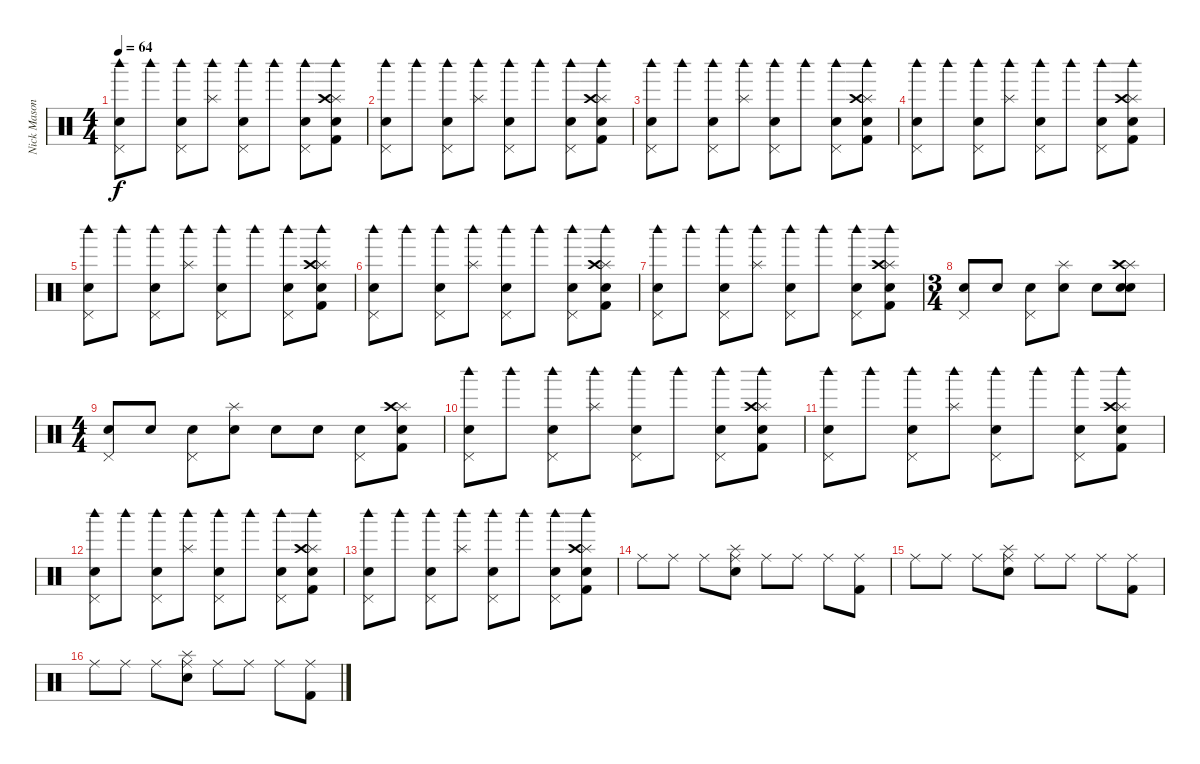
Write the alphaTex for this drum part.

\track ("Nick Mason" "Nick Mason") {instrument percussion}
\staff {score}
\articulation defaults
\ts (4 4)
\tempo 64
\clef neutral
\ks c
("Woodblock high (hit)" "Pedal Hi-Hat (hit)" "Snare (hit) 2").8{dy f} "Woodblock high (hit)".8 ("Woodblock high (hit)" "Pedal Hi-Hat (hit)" "Snare (hit) 2").8 ("Woodblock high (hit)" "Splash (hit)").8 ("Woodblock high (hit)" "Pedal Hi-Hat (hit)" "Snare (hit) 2").8 "Woodblock high (hit)".8 ("Woodblock high (hit)" "Pedal Hi-Hat (hit)" "Snare (hit) 2").8 ("Woodblock high (hit)" "Splash (hit)" "Crash high (hit)" "Electric Snare (hit)" "Kick (hit) 2").8 |
("Woodblock high (hit)" "Pedal Hi-Hat (hit)" "Snare (hit) 2").8 "Woodblock high (hit)".8 ("Woodblock high (hit)" "Pedal Hi-Hat (hit)" "Snare (hit) 2").8 ("Woodblock high (hit)" "Splash (hit)").8 ("Woodblock high (hit)" "Pedal Hi-Hat (hit)" "Snare (hit) 2").8 "Woodblock high (hit)".8 ("Woodblock high (hit)" "Pedal Hi-Hat (hit)" "Snare (hit) 2").8 ("Woodblock high (hit)" "Splash (hit)" "Crash high (hit)" "Electric Snare (hit)" "Kick (hit) 2").8 |
("Woodblock high (hit)" "Pedal Hi-Hat (hit)" "Snare (hit) 2").8 "Woodblock high (hit)".8 ("Woodblock high (hit)" "Pedal Hi-Hat (hit)" "Snare (hit) 2").8 ("Woodblock high (hit)" "Splash (hit)").8 ("Woodblock high (hit)" "Pedal Hi-Hat (hit)" "Snare (hit) 2").8 "Woodblock high (hit)".8 ("Woodblock high (hit)" "Pedal Hi-Hat (hit)" "Snare (hit) 2").8 ("Woodblock high (hit)" "Splash (hit)" "Crash high (hit)" "Electric Snare (hit)" "Kick (hit) 2").8 |
("Woodblock high (hit)" "Pedal Hi-Hat (hit)" "Snare (hit) 2").8 "Woodblock high (hit)".8 ("Woodblock high (hit)" "Pedal Hi-Hat (hit)" "Snare (hit) 2").8 ("Woodblock high (hit)" "Splash (hit)").8 ("Woodblock high (hit)" "Pedal Hi-Hat (hit)" "Snare (hit) 2").8 "Woodblock high (hit)".8 ("Woodblock high (hit)" "Pedal Hi-Hat (hit)" "Snare (hit) 2").8 ("Woodblock high (hit)" "Splash (hit)" "Crash high (hit)" "Electric Snare (hit)" "Kick (hit) 2").8 |
("Woodblock high (hit)" "Pedal Hi-Hat (hit)" "Snare (hit) 2").8 "Woodblock high (hit)".8 ("Woodblock high (hit)" "Pedal Hi-Hat (hit)" "Snare (hit) 2").8 ("Woodblock high (hit)" "Splash (hit)").8 ("Woodblock high (hit)" "Pedal Hi-Hat (hit)" "Snare (hit) 2").8 "Woodblock high (hit)".8 ("Woodblock high (hit)" "Pedal Hi-Hat (hit)" "Snare (hit) 2").8 ("Woodblock high (hit)" "Splash (hit)" "Crash high (hit)" "Electric Snare (hit)" "Kick (hit) 2").8 |
("Woodblock high (hit)" "Pedal Hi-Hat (hit)" "Snare (hit) 2").8 "Woodblock high (hit)".8 ("Woodblock high (hit)" "Pedal Hi-Hat (hit)" "Snare (hit) 2").8 ("Woodblock high (hit)" "Splash (hit)").8 ("Woodblock high (hit)" "Pedal Hi-Hat (hit)" "Snare (hit) 2").8 "Woodblock high (hit)".8 ("Woodblock high (hit)" "Pedal Hi-Hat (hit)" "Snare (hit) 2").8 ("Woodblock high (hit)" "Splash (hit)" "Crash high (hit)" "Electric Snare (hit)" "Kick (hit) 2").8 |
("Woodblock high (hit)" "Pedal Hi-Hat (hit)" "Snare (hit) 2").8 "Woodblock high (hit)".8 ("Woodblock high (hit)" "Pedal Hi-Hat (hit)" "Snare (hit) 2").8 ("Woodblock high (hit)" "Splash (hit)").8 ("Woodblock high (hit)" "Pedal Hi-Hat (hit)" "Snare (hit) 2").8 "Woodblock high (hit)".8 ("Woodblock high (hit)" "Pedal Hi-Hat (hit)" "Snare (hit) 2").8 ("Woodblock high (hit)" "Splash (hit)" "Crash high (hit)" "Electric Snare (hit)" "Kick (hit) 2").8 |
\ts (3 4)
("Pedal Hi-Hat (hit)" "Snare (hit) 2").8 "Electric Snare (hit)".8 ("Pedal Hi-Hat (hit)" "Snare (hit) 2").8 ("Splash (hit)" "Electric Snare (hit)").8 "Snare (hit) 2".8 ("Splash (hit)" "Crash high (hit)" "Electric Snare (hit)" "Hand Clap (hit)").8 |
\ts (4 4)
("Pedal Hi-Hat (hit)" "Snare (hit) 2").8 "Electric Snare (hit)".8 ("Pedal Hi-Hat (hit)" "Snare (hit) 2").8 ("Splash (hit)" "Electric Snare (hit)").8 "Snare (hit) 2".8 "Electric Snare (hit)".8 ("Pedal Hi-Hat (hit)" "Snare (hit) 2").8 ("Splash (hit)" "Crash high (hit)" "Electric Snare (hit)" "Kick (hit) 2").8 |
("Woodblock high (hit)" "Pedal Hi-Hat (hit)" "Snare (hit) 2").8 "Woodblock high (hit)".8 ("Woodblock high (hit)" "Pedal Hi-Hat (hit)" "Snare (hit) 2").8 ("Woodblock high (hit)" "Splash (hit)").8 ("Woodblock high (hit)" "Pedal Hi-Hat (hit)" "Snare (hit) 2").8 "Woodblock high (hit)".8 ("Woodblock high (hit)" "Pedal Hi-Hat (hit)" "Snare (hit) 2").8 ("Woodblock high (hit)" "Splash (hit)" "Crash high (hit)" "Electric Snare (hit)" "Kick (hit) 2").8 |
("Woodblock high (hit)" "Pedal Hi-Hat (hit)" "Snare (hit) 2").8 "Woodblock high (hit)".8 ("Woodblock high (hit)" "Pedal Hi-Hat (hit)" "Snare (hit) 2").8 ("Woodblock high (hit)" "Splash (hit)").8 ("Woodblock high (hit)" "Pedal Hi-Hat (hit)" "Snare (hit) 2").8 "Woodblock high (hit)".8 ("Woodblock high (hit)" "Pedal Hi-Hat (hit)" "Snare (hit) 2").8 ("Woodblock high (hit)" "Splash (hit)" "Crash high (hit)" "Electric Snare (hit)" "Kick (hit) 2").8 |
("Woodblock high (hit)" "Pedal Hi-Hat (hit)" "Snare (hit) 2").8 "Woodblock high (hit)".8 ("Woodblock high (hit)" "Pedal Hi-Hat (hit)" "Snare (hit) 2").8 ("Woodblock high (hit)" "Splash (hit)").8 ("Woodblock high (hit)" "Pedal Hi-Hat (hit)" "Snare (hit) 2").8 "Woodblock high (hit)".8 ("Woodblock high (hit)" "Pedal Hi-Hat (hit)" "Snare (hit) 2").8 ("Woodblock high (hit)" "Splash (hit)" "Crash high (hit)" "Electric Snare (hit)" "Kick (hit) 2").8 |
("Woodblock high (hit)" "Pedal Hi-Hat (hit)" "Snare (hit) 2").8 "Woodblock high (hit)".8 ("Woodblock high (hit)" "Pedal Hi-Hat (hit)" "Snare (hit) 2").8 ("Woodblock high (hit)" "Splash (hit)").8 ("Woodblock high (hit)" "Pedal Hi-Hat (hit)" "Snare (hit) 2").8 "Woodblock high (hit)".8 ("Woodblock high (hit)" "Pedal Hi-Hat (hit)" "Snare (hit) 2").8 ("Woodblock high (hit)" "Splash (hit)" "Crash high (hit)" "Electric Snare (hit)" "Kick (hit) 2").8 |
"Ride (middle)".8 "Ride (middle)".8 "Ride (middle)".8 ("Ride (middle)" "Splash (hit)" "Electric Snare (hit)").8 "Ride (middle)".8 "Ride (middle)".8 "Ride (middle)".8 ("Ride (middle)" "Kick (hit) 2").8 |
"Ride (middle)".8 "Ride (middle)".8 "Ride (middle)".8 ("Ride (middle)" "Splash (hit)" "Electric Snare (hit)").8 "Ride (middle)".8 "Ride (middle)".8 "Ride (middle)".8 ("Ride (middle)" "Kick (hit) 2").8 |
"Ride (middle)".8 "Ride (middle)".8 "Ride (middle)".8 ("Ride (middle)" "Splash (hit)" "Electric Snare (hit)").8 "Ride (middle)".8 "Ride (middle)".8 "Ride (middle)".8 ("Ride (middle)" "Kick (hit) 2").8
